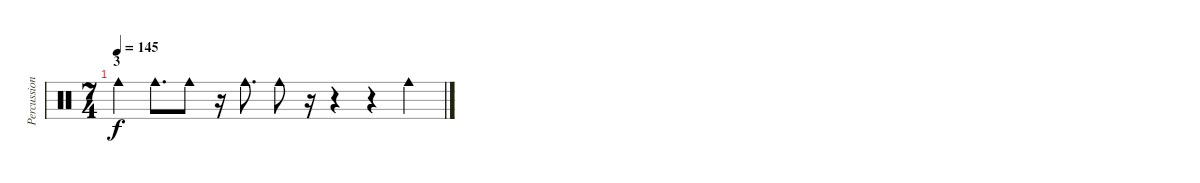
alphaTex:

\track ("Percussion" "Percussion") {instrument percussion}
\staff {score}
\articulation defaults
\ts (7 4)
\section ("" "3")
\tempo 145
\clef neutral
\ks c "Cowbell medium (hit)".4{dy f} "Cowbell medium (hit)".8{d} "Cowbell medium (hit)".8
r.16 "Cowbell medium (hit)".8{d} "Cowbell medium (hit)".8 r.16 r.4 r.4 "Cowbell medium (hit)".4
